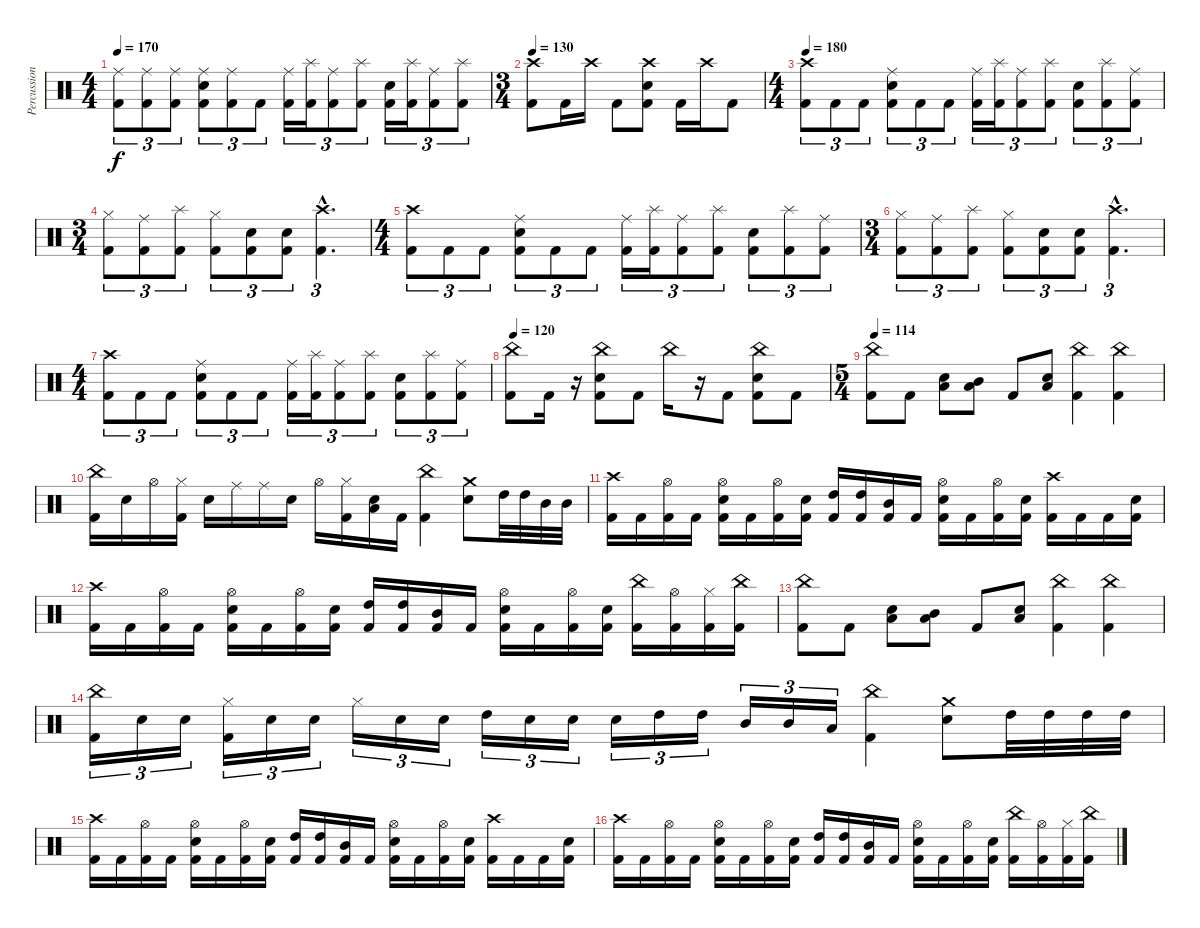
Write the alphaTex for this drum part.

\track ("Percussion" "Percussion") {instrument percussion}
\staff {score}
\articulation defaults
\ts (4 4)
\tempo 170
\clef neutral
\ks c
("Ride (middle)" "Kick (hit) 2").8{tu (3 2) dy f} ("Ride (middle)" "Kick (hit) 2").8{tu (3 2)} ("Ride (middle)" "Kick (hit) 2").8{tu (3 2)} ("Ride (middle)" "Electric Snare (hit)" "Kick (hit) 2").8{tu (3 2)} ("Ride (middle)" "Kick (hit) 2").8{tu (3 2)} "Kick (hit) 2".8{tu (3 2)} ("Ride (middle)" "Kick (hit) 2").16{tu (3 2)} ("Splash (hit)" "Kick (hit) 2").16{tu (3 2)} ("Ride (middle)" "Kick (hit) 2").8{tu (3 2)} ("Splash (hit)" "Kick (hit) 2").8{tu (3 2)} ("Electric Snare (hit)" "Kick (hit) 2").16{tu (3 2)} ("Splash (hit)" "Kick (hit) 2").16{tu (3 2)} ("Ride (middle)" "Kick (hit) 2").8{tu (3 2)} ("Splash (hit)" "Kick (hit) 2").8{tu (3 2)} |
\ts (3 4)
\tempo 130
("Crash high (hit)" "Kick (hit) 2").8 "Kick (hit) 2".16 "Crash high (hit)".16 "Kick (hit) 2".8 ("Crash high (hit)" "Electric Snare (hit)" "Kick (hit) 2").8 "Kick (hit) 2".16 "Crash high (hit)".16 "Kick (hit) 2".8 |
\ts (4 4)
\tempo 180
("Crash high (hit)" "Kick (hit) 2").8{tu (3 2)} "Kick (hit) 2".8{tu (3 2)} "Kick (hit) 2".8{tu (3 2)} ("Ride (middle)" "Electric Snare (hit)" "Kick (hit) 2").8{tu (3 2)} "Kick (hit) 2".8{tu (3 2)} "Kick (hit) 2".8{tu (3 2)} ("Ride (middle)" "Kick (hit) 2").16{tu (3 2)} ("Splash (hit)" "Kick (hit) 2").16{tu (3 2)} ("Ride (middle)" "Kick (hit) 2").8{tu (3 2)} ("Splash (hit)" "Kick (hit) 2").8{tu (3 2)} ("Electric Snare (hit)" "Kick (hit) 2").8{tu (3 2)} ("Splash (hit)" "Kick (hit) 2").8{tu (3 2)} ("Ride (middle)" "Kick (hit) 2").8{tu (3 2)} |
\ts (3 4)
("Hi-Hat (closed)" "Kick (hit) 2").8{tu (3 2)} ("Ride (middle)" "Kick (hit) 2").8{tu (3 2)} ("Splash (hit)" "Kick (hit) 2").8{tu (3 2)} ("Hi-Hat (closed)" "Kick (hit) 2").8{tu (3 2)} ("Electric Snare (hit)" "Kick (hit) 2").8{tu (3 2)} ("Electric Snare (hit)" "Kick (hit) 2").8{tu (3 2)} ("Crash high (hit)"{hac} "Kick (hit) 2"{hac}).4{d tu (3 2)} |
\ts (4 4)
("Crash high (hit)" "Kick (hit) 2").8{tu (3 2)} "Kick (hit) 2".8{tu (3 2)} "Kick (hit) 2".8{tu (3 2)} ("Ride (middle)" "Electric Snare (hit)" "Kick (hit) 2").8{tu (3 2)} "Kick (hit) 2".8{tu (3 2)} "Kick (hit) 2".8{tu (3 2)} ("Ride (middle)" "Kick (hit) 2").16{tu (3 2)} ("Splash (hit)" "Kick (hit) 2").16{tu (3 2)} ("Ride (middle)" "Kick (hit) 2").8{tu (3 2)} ("Splash (hit)" "Kick (hit) 2").8{tu (3 2)} ("Electric Snare (hit)" "Kick (hit) 2").8{tu (3 2)} ("Splash (hit)" "Kick (hit) 2").8{tu (3 2)} ("Ride (middle)" "Kick (hit) 2").8{tu (3 2)} |
\ts (3 4)
("Hi-Hat (closed)" "Kick (hit) 2").8{tu (3 2)} ("Ride (middle)" "Kick (hit) 2").8{tu (3 2)} ("Splash (hit)" "Kick (hit) 2").8{tu (3 2)} ("Hi-Hat (closed)" "Kick (hit) 2").8{tu (3 2)} ("Electric Snare (hit)" "Kick (hit) 2").8{tu (3 2)} ("Electric Snare (hit)" "Kick (hit) 2").8{tu (3 2)} ("Crash high (hit)"{hac} "Kick (hit) 2"{hac}).4{d tu (3 2)} |
\ts (4 4)
("Crash high (hit)" "Kick (hit) 2").8{tu (3 2)} "Kick (hit) 2".8{tu (3 2)} "Kick (hit) 2".8{tu (3 2)} ("Ride (middle)" "Electric Snare (hit)" "Kick (hit) 2").8{tu (3 2)} "Kick (hit) 2".8{tu (3 2)} "Kick (hit) 2".8{tu (3 2)} ("Ride (middle)" "Kick (hit) 2").16{tu (3 2)} ("Splash (hit)" "Kick (hit) 2").16{tu (3 2)} ("Ride (middle)" "Kick (hit) 2").8{tu (3 2)} ("Splash (hit)" "Kick (hit) 2").8{tu (3 2)} ("Electric Snare (hit)" "Kick (hit) 2").8{tu (3 2)} ("Splash (hit)" "Kick (hit) 2").8{tu (3 2)} ("Ride (middle)" "Kick (hit) 2").8{tu (3 2)} |
\tempo 120
("China (hit)" "Kick (hit) 2").8 "Kick (hit) 2".16 r.16 ("China (hit)" "Electric Snare (hit)" "Kick (hit) 2").8 "Kick (hit) 2".8 "China (hit)".16 r.16 "Kick (hit) 2".8 ("China (hit)" "Electric Snare (hit)" "Kick (hit) 2").8 "Kick (hit) 2".8 |
\ts (5 4)
\tempo 114
("China (hit)" "Kick (hit) 2").8 "Kick (hit) 2".8 ("Electric Snare (hit)" "Low Tom (hit)").8 ("Mid Tom (hit)" "Low Tom (hit)").8 "Kick (hit) 2".8 ("Electric Snare (hit)" "Low Tom (hit)").8 ("China (hit)" "Kick (hit) 2").4 ("China (hit)" "Kick (hit) 2").4 |
("China (hit)" "Kick (hit) 2").16 "Electric Snare (hit)".16 "Hi-Hat (open)".16 ("Hi-Hat (closed)" "Kick (hit) 2").16 "Electric Snare (hit)".16 "Ride (middle)".16 "Ride (middle)".16 "Electric Snare (hit)".16 "Hi-Hat (open)".16 ("Hi-Hat (closed)" "Kick (hit) 2").16 ("Electric Snare (hit)" "Low Tom (hit)").16 "Kick (hit) 2".16 ("China (hit)" "Kick (hit) 2").4 ("Crash medium (hit)" "Electric Snare (hit)").8 "High Tom (hit)".32 "High Tom (hit)".32 "Mid Tom (hit)".32 "Mid Tom (hit)".32 |
("Crash high (hit)" "Kick (hit) 2").16 "Kick (hit) 2".16 ("Hi-Hat (open)" "Kick (hit) 2").16 "Kick (hit) 2".16 ("Hi-Hat (open)" "Electric Snare (hit)" "Kick (hit) 2").16 "Kick (hit) 2".16 ("Hi-Hat (open)" "Kick (hit) 2").16 ("Electric Snare (hit)" "Kick (hit) 2").16 ("High Tom (hit)" "Kick (hit) 2").16 ("High Tom (hit)" "Kick (hit) 2").16 ("Mid Tom (hit)" "Kick (hit) 2").16 "Kick (hit) 2".16 ("Hi-Hat (open)" "Electric Snare (hit)" "Kick (hit) 2").16 "Kick (hit) 2".16 ("Hi-Hat (open)" "Kick (hit) 2").16 ("Electric Snare (hit)" "Kick (hit) 2").16 ("Crash high (hit)" "Kick (hit) 2").16 "Kick (hit) 2".16 "Kick (hit) 2".16 ("Electric Snare (hit)" "Kick (hit) 2").16 |
("Crash high (hit)" "Kick (hit) 2").16 "Kick (hit) 2".16 ("Hi-Hat (open)" "Kick (hit) 2").16 "Kick (hit) 2".16 ("Hi-Hat (open)" "Electric Snare (hit)" "Kick (hit) 2").16 "Kick (hit) 2".16 ("Hi-Hat (open)" "Kick (hit) 2").16 ("Electric Snare (hit)" "Kick (hit) 2").16 ("High Tom (hit)" "Kick (hit) 2").16 ("High Tom (hit)" "Kick (hit) 2").16 ("Mid Tom (hit)" "Kick (hit) 2").16 "Kick (hit) 2".16 ("Hi-Hat (open)" "Electric Snare (hit)" "Kick (hit) 2").16 "Kick (hit) 2".16 ("Hi-Hat (open)" "Kick (hit) 2").16 ("Electric Snare (hit)" "Kick (hit) 2").16 ("China (hit)" "Kick (hit) 2").16 ("Hi-Hat (open)" "Kick (hit) 2").16 ("Hi-Hat (closed)" "Kick (hit) 2").16 ("China (hit)" "Kick (hit) 2").16 |
("China (hit)" "Kick (hit) 2").8 "Kick (hit) 2".8 ("Electric Snare (hit)" "Low Tom (hit)").8 ("Mid Tom (hit)" "Low Tom (hit)").8 "Kick (hit) 2".8 ("Electric Snare (hit)" "Low Tom (hit)").8 ("China (hit)" "Kick (hit) 2").4 ("China (hit)" "Kick (hit) 2").4 |
("China (hit)" "Kick (hit) 2").16{tu (3 2)} "Electric Snare (hit)".16{tu (3 2)} "Electric Snare (hit)".16{tu (3 2)} ("Hi-Hat (closed)" "Kick (hit) 2").16{tu (3 2)} "Electric Snare (hit)".16{tu (3 2)} "Electric Snare (hit)".16{tu (3 2)} "Hi-Hat (closed)".16{tu (3 2)} "Electric Snare (hit)".16{tu (3 2)} "Electric Snare (hit)".16{tu (3 2)} "High Tom (hit)".16{tu (3 2)} "Electric Snare (hit)".16{tu (3 2)} "Electric Snare (hit)".16{tu (3 2)} "Electric Snare (hit)".16{tu (3 2)} "High Tom (hit)".16{tu (3 2)} "High Tom (hit)".16{tu (3 2)} "Mid Tom (hit)".16{tu (3 2)} "Mid Tom (hit)".16{tu (3 2)} "Low Tom (hit)".16{tu (3 2)} ("China (hit)" "Kick (hit) 2").4 ("Crash medium (hit)" "Electric Snare (hit)").8 "High Tom (hit)".32 "High Tom (hit)".32 "High Tom (hit)".32 "High Tom (hit)".32 |
("Crash high (hit)" "Kick (hit) 2").16 "Kick (hit) 2".16 ("Hi-Hat (open)" "Kick (hit) 2").16 "Kick (hit) 2".16 ("Hi-Hat (open)" "Electric Snare (hit)" "Kick (hit) 2").16 "Kick (hit) 2".16 ("Hi-Hat (open)" "Kick (hit) 2").16 ("Electric Snare (hit)" "Kick (hit) 2").16 ("High Tom (hit)" "Kick (hit) 2").16 ("High Tom (hit)" "Kick (hit) 2").16 ("Mid Tom (hit)" "Kick (hit) 2").16 "Kick (hit) 2".16 ("Hi-Hat (open)" "Electric Snare (hit)" "Kick (hit) 2").16 "Kick (hit) 2".16 ("Hi-Hat (open)" "Kick (hit) 2").16 ("Electric Snare (hit)" "Kick (hit) 2").16 ("Crash high (hit)" "Kick (hit) 2").16 "Kick (hit) 2".16 "Kick (hit) 2".16 ("Electric Snare (hit)" "Kick (hit) 2").16 |
("Crash high (hit)" "Kick (hit) 2").16 "Kick (hit) 2".16 ("Hi-Hat (open)" "Kick (hit) 2").16 "Kick (hit) 2".16 ("Hi-Hat (open)" "Electric Snare (hit)" "Kick (hit) 2").16 "Kick (hit) 2".16 ("Hi-Hat (open)" "Kick (hit) 2").16 ("Electric Snare (hit)" "Kick (hit) 2").16 ("High Tom (hit)" "Kick (hit) 2").16 ("High Tom (hit)" "Kick (hit) 2").16 ("Mid Tom (hit)" "Kick (hit) 2").16 "Kick (hit) 2".16 ("Hi-Hat (open)" "Electric Snare (hit)" "Kick (hit) 2").16 "Kick (hit) 2".16 ("Hi-Hat (open)" "Kick (hit) 2").16 ("Electric Snare (hit)" "Kick (hit) 2").16 ("China (hit)" "Kick (hit) 2").16 ("Hi-Hat (open)" "Kick (hit) 2").16 ("Hi-Hat (closed)" "Kick (hit) 2").16 ("China (hit)" "Kick (hit) 2").16
